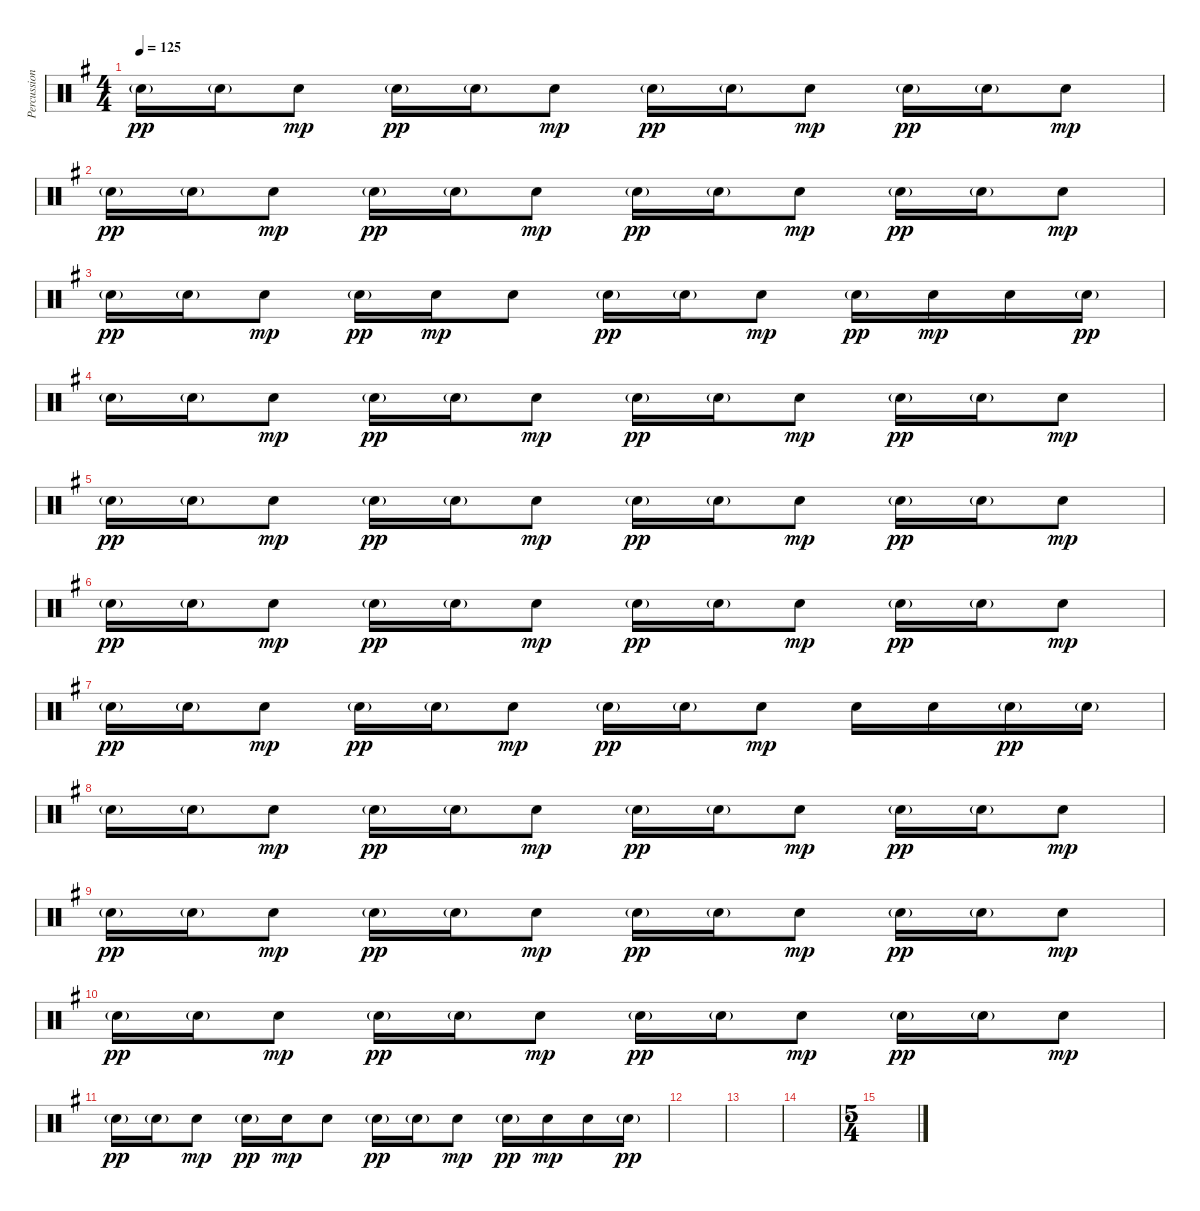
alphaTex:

\track ("Percussion" "Percussion") {instrument percussion}
\staff {score}
\articulation defaults
\ts (4 4)
\tempo 125
\clef neutral
\ks eminor "Snare (hit) 2"{g}.16{dy pp} "Snare (hit) 2"{g}.16 "Snare (hit) 2".8{dy mp} "Snare (hit) 2"{g}.16{dy pp} "Snare (hit) 2"{g}.16 "Snare (hit) 2".8{dy mp} "Snare (hit) 2"{g}.16{dy pp} "Snare (hit) 2"{g}.16 "Snare (hit) 2".8{dy mp} "Snare (hit) 2"{g}.16{dy pp} "Snare (hit) 2"{g}.16 "Snare (hit) 2".8{dy mp}
|
"Snare (hit) 2"{g}.16{dy pp} "Snare (hit) 2"{g}.16 "Snare (hit) 2".8{dy mp} "Snare (hit) 2"{g}.16{dy pp} "Snare (hit) 2"{g}.16 "Snare (hit) 2".8{dy mp} "Snare (hit) 2"{g}.16{dy pp} "Snare (hit) 2"{g}.16 "Snare (hit) 2".8{dy mp} "Snare (hit) 2"{g}.16{dy pp} "Snare (hit) 2"{g}.16 "Snare (hit) 2".8{dy mp} |
"Snare (hit) 2"{g}.16{dy pp} "Snare (hit) 2"{g}.16 "Snare (hit) 2".8{dy mp} "Snare (hit) 2"{g}.16{dy pp} "Snare (hit) 2".16{dy mp} "Snare (hit) 2".8 "Snare (hit) 2"{g}.16{dy pp} "Snare (hit) 2"{g}.16 "Snare (hit) 2".8{dy mp} "Snare (hit) 2"{g}.16{dy pp} "Snare (hit) 2".16{dy mp} "Snare (hit) 2".16 "Snare (hit) 2"{g}.16{dy pp} |
"Snare (hit) 2"{g}.16 "Snare (hit) 2"{g}.16 "Snare (hit) 2".8{dy mp} "Snare (hit) 2"{g}.16{dy pp} "Snare (hit) 2"{g}.16 "Snare (hit) 2".8{dy mp} "Snare (hit) 2"{g}.16{dy pp} "Snare (hit) 2"{g}.16 "Snare (hit) 2".8{dy mp} "Snare (hit) 2"{g}.16{dy pp} "Snare (hit) 2"{g}.16 "Snare (hit) 2".8{dy mp} |
"Snare (hit) 2"{g}.16{dy pp} "Snare (hit) 2"{g}.16 "Snare (hit) 2".8{dy mp} "Snare (hit) 2"{g}.16{dy pp} "Snare (hit) 2"{g}.16 "Snare (hit) 2".8{dy mp} "Snare (hit) 2"{g}.16{dy pp} "Snare (hit) 2"{g}.16 "Snare (hit) 2".8{dy mp} "Snare (hit) 2"{g}.16{dy pp} "Snare (hit) 2"{g}.16 "Snare (hit) 2".8{dy mp} |
"Snare (hit) 2"{g}.16{dy pp} "Snare (hit) 2"{g}.16 "Snare (hit) 2".8{dy mp} "Snare (hit) 2"{g}.16{dy pp} "Snare (hit) 2"{g}.16 "Snare (hit) 2".8{dy mp} "Snare (hit) 2"{g}.16{dy pp} "Snare (hit) 2"{g}.16 "Snare (hit) 2".8{dy mp} "Snare (hit) 2"{g}.16{dy pp} "Snare (hit) 2"{g}.16 "Snare (hit) 2".8{dy mp} |
"Snare (hit) 2"{g}.16{dy pp} "Snare (hit) 2"{g}.16 "Snare (hit) 2".8{dy mp} "Snare (hit) 2"{g}.16{dy pp} "Snare (hit) 2"{g}.16 "Snare (hit) 2".8{dy mp} "Snare (hit) 2"{g}.16{dy pp} "Snare (hit) 2"{g}.16 "Snare (hit) 2".8{dy mp} "Snare (hit) 2".16 "Snare (hit) 2".16 "Snare (hit) 2"{g}.16{dy pp} "Snare (hit) 2"{g}.16 |
"Snare (hit) 2"{g}.16 "Snare (hit) 2"{g}.16 "Snare (hit) 2".8{dy mp} "Snare (hit) 2"{g}.16{dy pp} "Snare (hit) 2"{g}.16 "Snare (hit) 2".8{dy mp} "Snare (hit) 2"{g}.16{dy pp} "Snare (hit) 2"{g}.16 "Snare (hit) 2".8{dy mp} "Snare (hit) 2"{g}.16{dy pp} "Snare (hit) 2"{g}.16 "Snare (hit) 2".8{dy mp} |
"Snare (hit) 2"{g}.16{dy pp} "Snare (hit) 2"{g}.16 "Snare (hit) 2".8{dy mp} "Snare (hit) 2"{g}.16{dy pp} "Snare (hit) 2"{g}.16 "Snare (hit) 2".8{dy mp} "Snare (hit) 2"{g}.16{dy pp} "Snare (hit) 2"{g}.16 "Snare (hit) 2".8{dy mp} "Snare (hit) 2"{g}.16{dy pp} "Snare (hit) 2"{g}.16 "Snare (hit) 2".8{dy mp} |
"Snare (hit) 2"{g}.16{dy pp} "Snare (hit) 2"{g}.16 "Snare (hit) 2".8{dy mp} "Snare (hit) 2"{g}.16{dy pp} "Snare (hit) 2"{g}.16 "Snare (hit) 2".8{dy mp} "Snare (hit) 2"{g}.16{dy pp} "Snare (hit) 2"{g}.16 "Snare (hit) 2".8{dy mp} "Snare (hit) 2"{g}.16{dy pp} "Snare (hit) 2"{g}.16 "Snare (hit) 2".8{dy mp} |
"Snare (hit) 2"{g}.16{dy pp} "Snare (hit) 2"{g}.16 "Snare (hit) 2".8{dy mp} "Snare (hit) 2"{g}.16{dy pp} "Snare (hit) 2".16{dy mp} "Snare (hit) 2".8 "Snare (hit) 2"{g}.16{dy pp} "Snare (hit) 2"{g}.16 "Snare (hit) 2".8{dy mp} "Snare (hit) 2"{g}.16{dy pp} "Snare (hit) 2".16{dy mp} "Snare (hit) 2".16 "Snare (hit) 2"{g}.16{dy pp} |
|
|
|
\ts (5 4)
